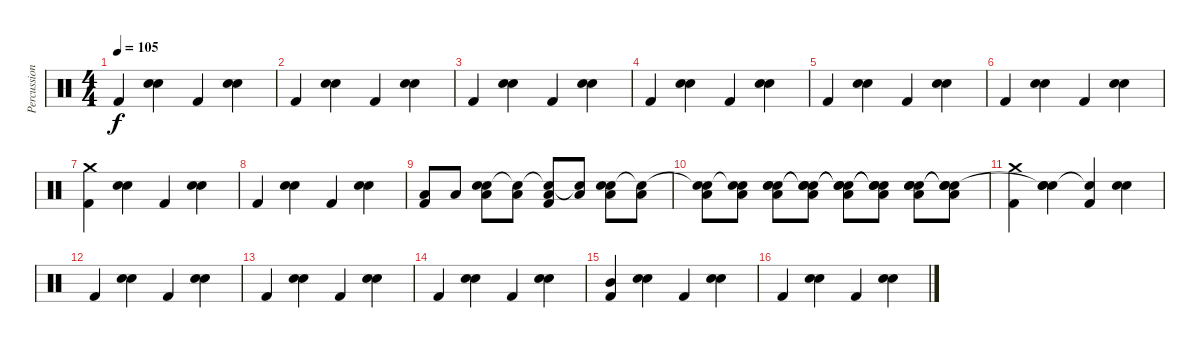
\track ("Percussion" "Percussion") {instrument percussion}
\staff {score}
\articulation defaults
\ts (4 4)
\tempo 105
\clef neutral
\ks c "Kick (hit) 2".4{dy f}
("Snare (hit) 2" "Hand Clap (hit)").4 "Kick (hit) 2".4 ("Snare (hit) 2" "Hand Clap (hit)").4 |
"Kick (hit) 2".4 ("Snare (hit) 2" "Hand Clap (hit)").4 "Kick (hit) 2".4 ("Snare (hit) 2" "Hand Clap (hit)").4 |
"Kick (hit) 2".4 ("Snare (hit) 2" "Hand Clap (hit)").4 "Kick (hit) 2".4 ("Snare (hit) 2" "Hand Clap (hit)").4 |
"Kick (hit) 2".4 ("Snare (hit) 2" "Hand Clap (hit)").4 "Kick (hit) 2".4 ("Snare (hit) 2" "Hand Clap (hit)").4 |
"Kick (hit) 2".4 ("Snare (hit) 2" "Hand Clap (hit)").4 "Kick (hit) 2".4 ("Snare (hit) 2" "Hand Clap (hit)").4 |
"Kick (hit) 2".4 ("Snare (hit) 2" "Hand Clap (hit)").4 "Kick (hit) 2".4 ("Snare (hit) 2" "Hand Clap (hit)").4 |
("Kick (hit) 2" "Crash medium (hit)").4 ("Snare (hit) 2" "Hand Clap (hit)").4 "Kick (hit) 2".4 ("Snare (hit) 2" "Hand Clap (hit)").4 |
"Kick (hit) 2".4 ("Snare (hit) 2" "Hand Clap (hit)").4 "Kick (hit) 2".4 ("Snare (hit) 2" "Hand Clap (hit)").4 |
("Low Floor Tom (hit)" "Kick (hit) 2").8 "Low Floor Tom (hit)".8 ("Low Floor Tom (hit)" "Hand Clap (hit)" "Snare (hit) 2").8 ("Low Floor Tom (hit)" "Snare (hit)"{t}).8 ("Low Floor Tom (hit)" "Hand Clap (hit)"{t} "Kick (hit) 2").8 ("Low Floor Tom (hit)" "Snare (hit)"{t}).8 ("Low Floor Tom (hit)" "Hand Clap (hit)" "Snare (hit) 2").8 ("Low Floor Tom (hit)" "Snare (hit)"{t}).8 |
("Low Floor Tom (hit)" "Snare (hit)"{t} "Snare (hit) 2").8 ("Low Floor Tom (hit)" "Snare (hit)"{t} "Snare (hit) 2").8 ("Low Floor Tom (hit)" "Hand Clap (hit)" "Hand Clap (hit)" "Snare (hit) 2").8 ("Low Floor Tom (hit)" "Snare (hit)"{t} "Snare (hit)"{t} "Snare (hit) 2").8 ("Low Floor Tom (hit)" "Snare (hit)"{t} "Snare (hit)"{t} "Snare (hit) 2").8 ("Low Floor Tom (hit)" "Snare (hit)"{t} "Snare (hit)"{t} "Snare (hit) 2").8 ("Low Floor Tom (hit)" "Hand Clap (hit)" "Hand Clap (hit)" "Snare (hit) 2").8 ("Low Floor Tom (hit)" "Snare (hit)"{t} "Snare (hit)"{t} "Snare (hit) 2").8 |
("Kick (hit) 2" "Crash medium (hit)").4 ("Snare (hit) 2" "Hand Clap (hit)" "Snare (hit)"{t}).4 ("Kick (hit) 2" "Snare (hit)"{t}).4 ("Snare (hit) 2" "Hand Clap (hit)").4 |
"Kick (hit) 2".4 ("Snare (hit) 2" "Hand Clap (hit)").4 "Kick (hit) 2".4 ("Snare (hit) 2" "Hand Clap (hit)").4 |
"Kick (hit) 2".4 ("Snare (hit) 2" "Hand Clap (hit)").4 "Kick (hit) 2".4 ("Snare (hit) 2" "Hand Clap (hit)").4 |
"Kick (hit) 2".4 ("Snare (hit) 2" "Hand Clap (hit)").4 "Kick (hit) 2".4 ("Snare (hit) 2" "Hand Clap (hit)").4 |
("Kick (hit) 2" "Mid Tom (hit)").4 ("Snare (hit) 2" "Hand Clap (hit)").4 "Kick (hit) 2".4 ("Snare (hit) 2" "Hand Clap (hit)").4 |
"Kick (hit) 2".4 ("Snare (hit) 2" "Hand Clap (hit)").4 "Kick (hit) 2".4 ("Snare (hit) 2" "Hand Clap (hit)").4
